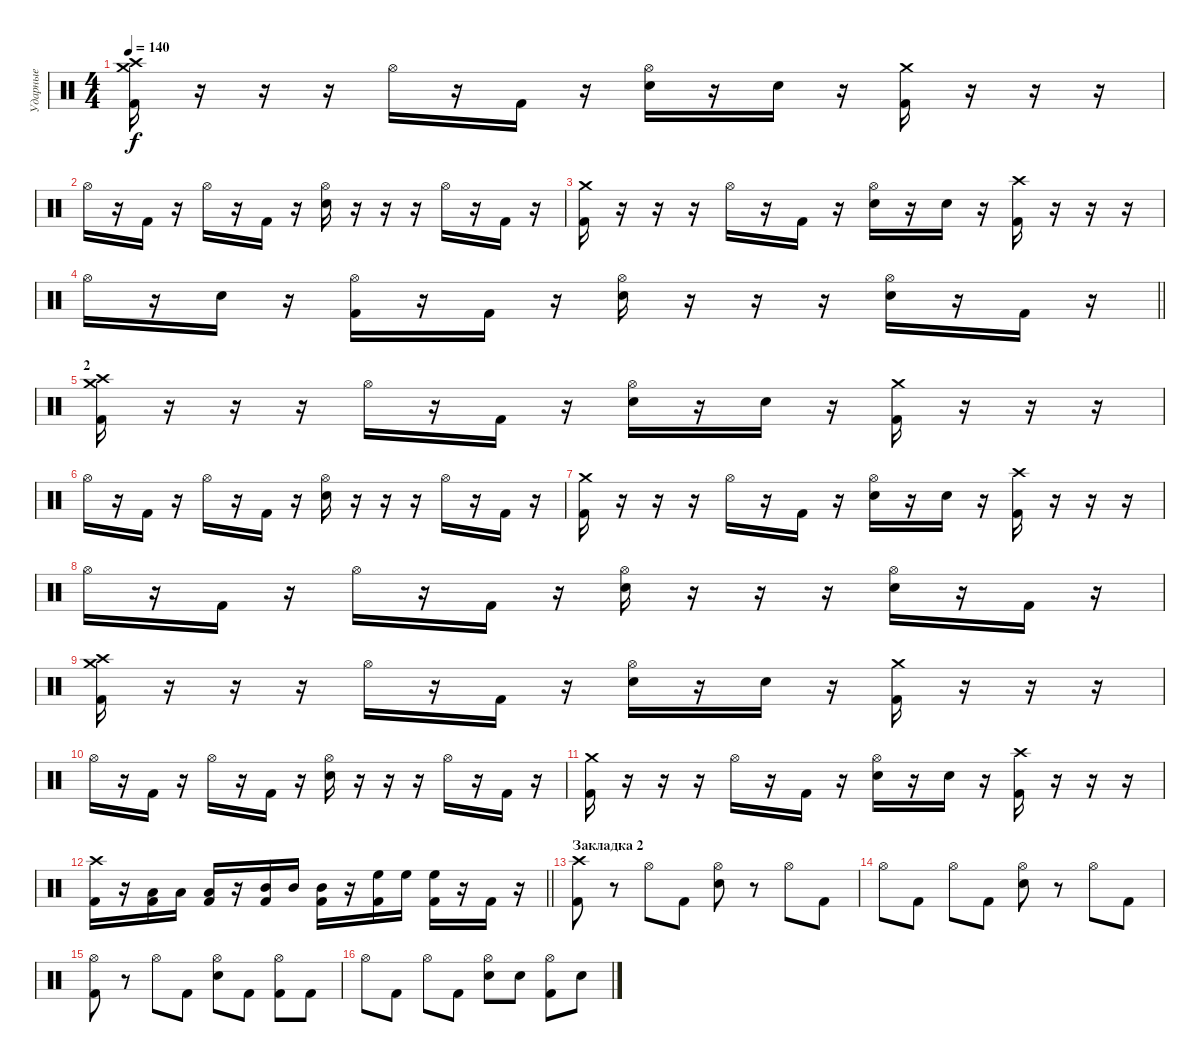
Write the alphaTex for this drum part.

\track ("Ударные" "Ударные") {instrument percussion}
\staff {score}
\articulation defaults
\ts (4 4)
\tempo 140
\clef neutral
\ks c
("Crash high (hit)" "Crash medium (hit)" "Kick (hit) 2").16{dy f} r.16 r.16 r.16 "Hi-Hat (open)".16 r.16 "Kick (hit) 2".16 r.16 ("Hi-Hat (open)" "Snare (hit) 2").16 r.16 "Snare (hit) 2".16 r.16 ("Crash medium (hit)" "Kick (hit) 2").16 r.16 r.16 r.16 |
"Hi-Hat (open)".16 r.16 "Kick (hit) 2".16 r.16 "Hi-Hat (open)".16 r.16 "Kick (hit) 2".16 r.16 ("Hi-Hat (open)" "Snare (hit) 2").16 r.16 r.16 r.16 "Hi-Hat (open)".16 r.16 "Kick (hit) 2".16 r.16 |
("Crash medium (hit)" "Kick (hit) 2").16 r.16 r.16 r.16 "Hi-Hat (open)".16 r.16 "Kick (hit) 2".16 r.16 ("Hi-Hat (open)" "Snare (hit) 2").16 r.16 "Snare (hit) 2".16 r.16 ("Crash high (hit)" "Kick (hit) 2").16 r.16 r.16 r.16 |
\barLineRight lightlight "Hi-Hat (open)".16
r.16 "Snare (hit) 2".16 r.16 ("Hi-Hat (open)" "Kick (hit) 2").16 r.16 "Kick (hit) 2".16 r.16 ("Hi-Hat (open)" "Snare (hit) 2").16 r.16 r.16 r.16 ("Hi-Hat (open)" "Snare (hit) 2").16 r.16 "Kick (hit) 2".16 r.16 |
\section ("" "2")
("Crash high (hit)" "Crash medium (hit)" "Kick (hit) 2").16 r.16 r.16 r.16 "Hi-Hat (open)".16 r.16 "Kick (hit) 2".16 r.16 ("Hi-Hat (open)" "Snare (hit) 2").16 r.16 "Snare (hit) 2".16 r.16 ("Crash medium (hit)" "Kick (hit) 2").16 r.16 r.16 r.16 |
"Hi-Hat (open)".16 r.16 "Kick (hit) 2".16 r.16 "Hi-Hat (open)".16 r.16 "Kick (hit) 2".16 r.16 ("Hi-Hat (open)" "Snare (hit) 2").16 r.16 r.16 r.16 "Hi-Hat (open)".16 r.16 "Kick (hit) 2".16 r.16 |
("Crash medium (hit)" "Kick (hit) 2").16 r.16 r.16 r.16 "Hi-Hat (open)".16 r.16 "Kick (hit) 2".16 r.16 ("Hi-Hat (open)" "Snare (hit) 2").16 r.16 "Snare (hit) 2".16 r.16 ("Crash high (hit)" "Kick (hit) 2").16 r.16 r.16 r.16 |
"Hi-Hat (open)".16 r.16 "Kick (hit) 2".16 r.16 "Hi-Hat (open)".16 r.16 "Kick (hit) 2".16 r.16 ("Hi-Hat (open)" "Snare (hit) 2").16 r.16 r.16 r.16 ("Hi-Hat (open)" "Snare (hit) 2").16 r.16 "Kick (hit) 2".16 r.16 |
("Crash high (hit)" "Crash medium (hit)" "Kick (hit) 2").16 r.16 r.16 r.16 "Hi-Hat (open)".16 r.16 "Kick (hit) 2".16 r.16 ("Hi-Hat (open)" "Snare (hit) 2").16 r.16 "Snare (hit) 2".16 r.16 ("Crash medium (hit)" "Kick (hit) 2").16 r.16 r.16 r.16 |
"Hi-Hat (open)".16 r.16 "Kick (hit) 2".16 r.16 "Hi-Hat (open)".16 r.16 "Kick (hit) 2".16 r.16 ("Hi-Hat (open)" "Snare (hit) 2").16 r.16 r.16 r.16 "Hi-Hat (open)".16 r.16 "Kick (hit) 2".16 r.16 |
("Crash medium (hit)" "Kick (hit) 2").16 r.16 r.16 r.16 "Hi-Hat (open)".16 r.16 "Kick (hit) 2".16 r.16 ("Hi-Hat (open)" "Snare (hit) 2").16 r.16 "Snare (hit) 2".16 r.16 ("Crash high (hit)" "Kick (hit) 2").16 r.16 r.16 r.16 |
\barLineRight lightlight
("Crash high (hit)" "Kick (hit) 2").16 r.16 ("Low Tom (hit)" "Kick (hit) 2").16 "Low Tom (hit)".16 ("Low Tom (hit)" "Kick (hit) 2").16 r.16 ("Mid Tom (hit)" "Kick (hit) 2").16 "Mid Tom (hit)".16 ("Mid Tom (hit)" "Kick (hit) 2").16 r.16 ("High Floor Tom (hit)" "Kick (hit) 2").16 "High Floor Tom (hit)".16 ("High Floor Tom (hit)" "Kick (hit) 2").16 r.16 "Kick (hit) 2".16 r.16 |
\section ("" "Закладка 2")
("Crash high (hit)" "Kick (hit) 2").8 r.8 "Hi-Hat (open)".8 "Kick (hit) 2".8 ("Hi-Hat (open)" "Snare (hit) 2").8 r.8 "Hi-Hat (open)".8 "Kick (hit) 2".8 |
"Hi-Hat (open)".8 "Kick (hit) 2".8 "Hi-Hat (open)".8 "Kick (hit) 2".8 ("Hi-Hat (open)" "Snare (hit) 2").8 r.8 "Hi-Hat (open)".8 "Kick (hit) 2".8 |
("Hi-Hat (open)" "Kick (hit) 2").8 r.8 "Hi-Hat (open)".8 "Kick (hit) 2".8 ("Hi-Hat (open)" "Snare (hit) 2").8 "Kick (hit) 2".8 ("Hi-Hat (open)" "Kick (hit) 2").8 "Kick (hit) 2".8 |
"Hi-Hat (open)".8 "Kick (hit) 2".8 "Hi-Hat (open)".8 "Kick (hit) 2".8 ("Hi-Hat (open)" "Snare (hit) 2").8 "Snare (hit) 2".8 ("Hi-Hat (open)" "Kick (hit) 2").8 "Snare (hit) 2".8
